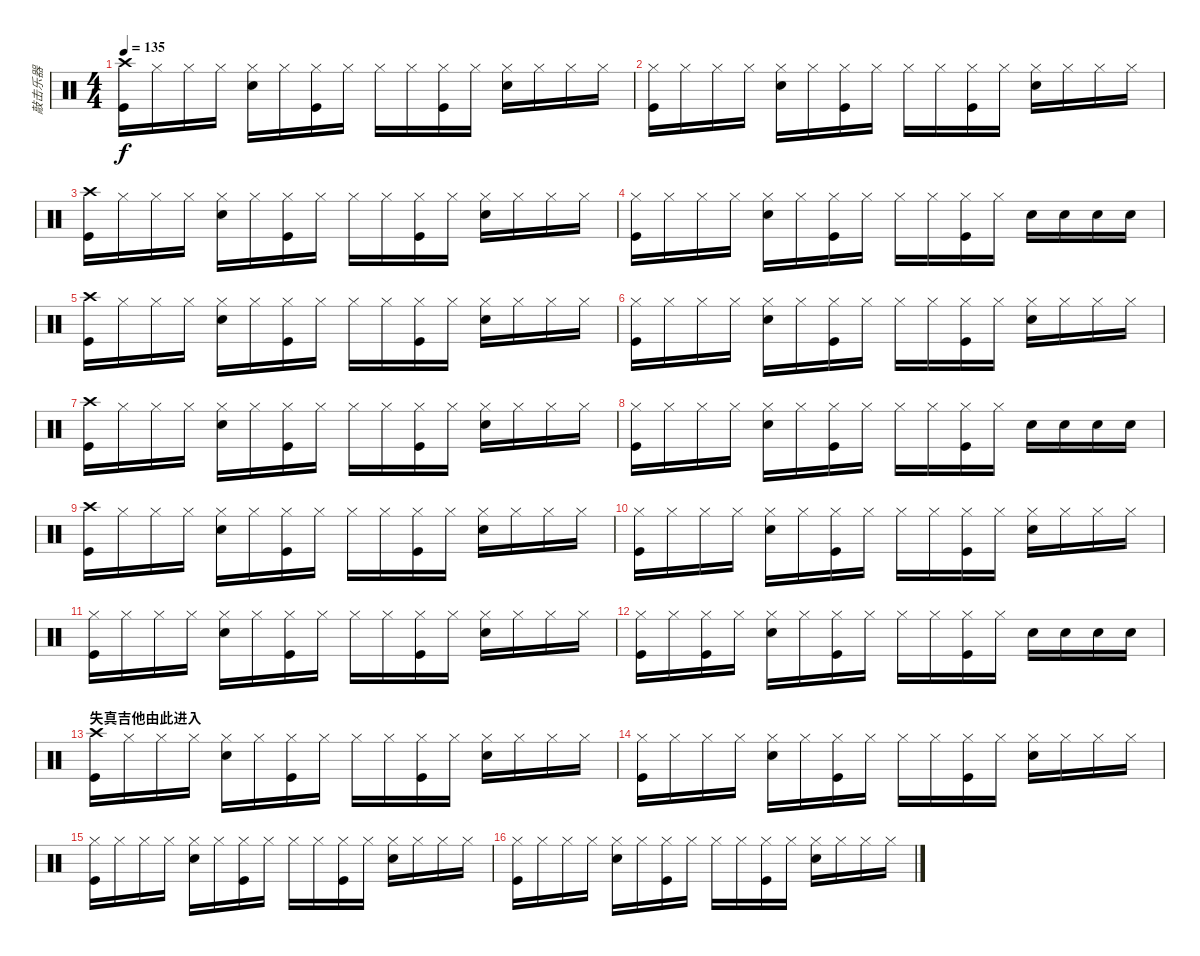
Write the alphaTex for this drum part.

\track ("敲击乐器" "敲击乐器") {instrument percussion}
\staff {score}
\articulation defaults
\ts (4 4)
\tempo 135
\clef neutral
\ks c
("Crash high (hit)" "Kick (hit)").16{dy f} "Hi-Hat (closed)".16 "Hi-Hat (closed)".16 "Hi-Hat (closed)".16 ("Hi-Hat (closed)" "Snare (hit) 2").16 "Hi-Hat (closed)".16 ("Hi-Hat (closed)" "Kick (hit)").16 "Hi-Hat (closed)".16 "Hi-Hat (closed)".16 "Hi-Hat (closed)".16 ("Hi-Hat (closed)" "Kick (hit)").16 "Hi-Hat (closed)".16 ("Hi-Hat (closed)" "Snare (hit) 2").16 "Hi-Hat (closed)".16 "Hi-Hat (closed)".16 "Hi-Hat (closed)".16 |
("Hi-Hat (closed)" "Kick (hit)").16 "Hi-Hat (closed)".16 "Hi-Hat (closed)".16 "Hi-Hat (closed)".16 ("Hi-Hat (closed)" "Snare (hit) 2").16 "Hi-Hat (closed)".16 ("Hi-Hat (closed)" "Kick (hit)").16 "Hi-Hat (closed)".16 "Hi-Hat (closed)".16 "Hi-Hat (closed)".16 ("Hi-Hat (closed)" "Kick (hit)").16 "Hi-Hat (closed)".16 ("Hi-Hat (closed)" "Snare (hit) 2").16 "Hi-Hat (closed)".16 "Hi-Hat (closed)".16 "Hi-Hat (closed)".16 |
("Crash high (hit)" "Kick (hit)").16 "Hi-Hat (closed)".16 "Hi-Hat (closed)".16 "Hi-Hat (closed)".16 ("Hi-Hat (closed)" "Snare (hit) 2").16 "Hi-Hat (closed)".16 ("Hi-Hat (closed)" "Kick (hit)").16 "Hi-Hat (closed)".16 "Hi-Hat (closed)".16 "Hi-Hat (closed)".16 ("Hi-Hat (closed)" "Kick (hit)").16 "Hi-Hat (closed)".16 ("Hi-Hat (closed)" "Snare (hit) 2").16 "Hi-Hat (closed)".16 "Hi-Hat (closed)".16 "Hi-Hat (closed)".16 |
("Hi-Hat (closed)" "Kick (hit)").16 "Hi-Hat (closed)".16 "Hi-Hat (closed)".16 "Hi-Hat (closed)".16 ("Hi-Hat (closed)" "Snare (hit) 2").16 "Hi-Hat (closed)".16 ("Hi-Hat (closed)" "Kick (hit)").16 "Hi-Hat (closed)".16 "Hi-Hat (closed)".16 "Hi-Hat (closed)".16 ("Hi-Hat (closed)" "Kick (hit)").16 "Hi-Hat (closed)".16 "Snare (hit) 2".16 "Snare (hit) 2".16 "Snare (hit) 2".16 "Snare (hit) 2".16 |
("Crash high (hit)" "Kick (hit)").16 "Hi-Hat (closed)".16 "Hi-Hat (closed)".16 "Hi-Hat (closed)".16 ("Hi-Hat (closed)" "Snare (hit) 2").16 "Hi-Hat (closed)".16 ("Hi-Hat (closed)" "Kick (hit)").16 "Hi-Hat (closed)".16 "Hi-Hat (closed)".16 "Hi-Hat (closed)".16 ("Hi-Hat (closed)" "Kick (hit)").16 "Hi-Hat (closed)".16 ("Hi-Hat (closed)" "Snare (hit) 2").16 "Hi-Hat (closed)".16 "Hi-Hat (closed)".16 "Hi-Hat (closed)".16 |
("Hi-Hat (closed)" "Kick (hit)").16 "Hi-Hat (closed)".16 "Hi-Hat (closed)".16 "Hi-Hat (closed)".16 ("Hi-Hat (closed)" "Snare (hit) 2").16 "Hi-Hat (closed)".16 ("Hi-Hat (closed)" "Kick (hit)").16 "Hi-Hat (closed)".16 "Hi-Hat (closed)".16 "Hi-Hat (closed)".16 ("Hi-Hat (closed)" "Kick (hit)").16 "Hi-Hat (closed)".16 ("Hi-Hat (closed)" "Snare (hit) 2").16 "Hi-Hat (closed)".16 "Hi-Hat (closed)".16 "Hi-Hat (closed)".16 |
("Crash high (hit)" "Kick (hit)").16 "Hi-Hat (closed)".16 "Hi-Hat (closed)".16 "Hi-Hat (closed)".16 ("Hi-Hat (closed)" "Snare (hit) 2").16 "Hi-Hat (closed)".16 ("Hi-Hat (closed)" "Kick (hit)").16 "Hi-Hat (closed)".16 "Hi-Hat (closed)".16 "Hi-Hat (closed)".16 ("Hi-Hat (closed)" "Kick (hit)").16 "Hi-Hat (closed)".16 ("Hi-Hat (closed)" "Snare (hit) 2").16 "Hi-Hat (closed)".16 "Hi-Hat (closed)".16 "Hi-Hat (closed)".16 |
("Hi-Hat (closed)" "Kick (hit)").16 "Hi-Hat (closed)".16 "Hi-Hat (closed)".16 "Hi-Hat (closed)".16 ("Hi-Hat (closed)" "Snare (hit) 2").16 "Hi-Hat (closed)".16 ("Hi-Hat (closed)" "Kick (hit)").16 "Hi-Hat (closed)".16 "Hi-Hat (closed)".16 "Hi-Hat (closed)".16 ("Hi-Hat (closed)" "Kick (hit)").16 "Hi-Hat (closed)".16 "Snare (hit) 2".16 "Snare (hit) 2".16 "Snare (hit) 2".16 "Snare (hit) 2".16 |
("Crash high (hit)" "Kick (hit)").16 "Hi-Hat (closed)".16 "Hi-Hat (closed)".16 "Hi-Hat (closed)".16 ("Hi-Hat (closed)" "Snare (hit) 2").16 "Hi-Hat (closed)".16 ("Hi-Hat (closed)" "Kick (hit)").16 "Hi-Hat (closed)".16 "Hi-Hat (closed)".16 "Hi-Hat (closed)".16 ("Hi-Hat (closed)" "Kick (hit)").16 "Hi-Hat (closed)".16 ("Hi-Hat (closed)" "Snare (hit) 2").16 "Hi-Hat (closed)".16 "Hi-Hat (closed)".16 "Hi-Hat (closed)".16 |
("Hi-Hat (closed)" "Kick (hit)").16 "Hi-Hat (closed)".16 "Hi-Hat (closed)".16 "Hi-Hat (closed)".16 ("Hi-Hat (closed)" "Snare (hit) 2").16 "Hi-Hat (closed)".16 ("Hi-Hat (closed)" "Kick (hit)").16 "Hi-Hat (closed)".16 "Hi-Hat (closed)".16 "Hi-Hat (closed)".16 ("Hi-Hat (closed)" "Kick (hit)").16 "Hi-Hat (closed)".16 ("Hi-Hat (closed)" "Snare (hit) 2").16 "Hi-Hat (closed)".16 "Hi-Hat (closed)".16 "Hi-Hat (closed)".16 |
("Hi-Hat (closed)" "Kick (hit)").16 "Hi-Hat (closed)".16 "Hi-Hat (closed)".16 "Hi-Hat (closed)".16 ("Hi-Hat (closed)" "Snare (hit) 2").16 "Hi-Hat (closed)".16 ("Hi-Hat (closed)" "Kick (hit)").16 "Hi-Hat (closed)".16 "Hi-Hat (closed)".16 "Hi-Hat (closed)".16 ("Hi-Hat (closed)" "Kick (hit)").16 "Hi-Hat (closed)".16 ("Hi-Hat (closed)" "Snare (hit) 2").16 "Hi-Hat (closed)".16 "Hi-Hat (closed)".16 "Hi-Hat (closed)".16 |
("Hi-Hat (closed)" "Kick (hit)").16 "Hi-Hat (closed)".16 ("Hi-Hat (closed)" "Kick (hit)").16 "Hi-Hat (closed)".16 ("Hi-Hat (closed)" "Snare (hit) 2").16 "Hi-Hat (closed)".16 ("Hi-Hat (closed)" "Kick (hit)").16 "Hi-Hat (closed)".16 "Hi-Hat (closed)".16 "Hi-Hat (closed)".16 ("Hi-Hat (closed)" "Kick (hit)").16 "Hi-Hat (closed)".16 "Snare (hit) 2".16 "Snare (hit) 2".16 "Snare (hit) 2".16 "Snare (hit) 2".16 |
\section ("" "失真吉他由此进入")
("Crash high (hit)" "Kick (hit)").16 "Hi-Hat (closed)".16 "Hi-Hat (closed)".16 "Hi-Hat (closed)".16 ("Hi-Hat (closed)" "Snare (hit) 2").16 "Hi-Hat (closed)".16 ("Hi-Hat (closed)" "Kick (hit)").16 "Hi-Hat (closed)".16 "Hi-Hat (closed)".16 "Hi-Hat (closed)".16 ("Hi-Hat (closed)" "Kick (hit)").16 "Hi-Hat (closed)".16 ("Hi-Hat (closed)" "Snare (hit) 2").16 "Hi-Hat (closed)".16 "Hi-Hat (closed)".16 "Hi-Hat (closed)".16 |
("Hi-Hat (closed)" "Kick (hit)").16 "Hi-Hat (closed)".16 "Hi-Hat (closed)".16 "Hi-Hat (closed)".16 ("Hi-Hat (closed)" "Snare (hit) 2").16 "Hi-Hat (closed)".16 ("Hi-Hat (closed)" "Kick (hit)").16 "Hi-Hat (closed)".16 "Hi-Hat (closed)".16 "Hi-Hat (closed)".16 ("Hi-Hat (closed)" "Kick (hit)").16 "Hi-Hat (closed)".16 ("Hi-Hat (closed)" "Snare (hit) 2").16 "Hi-Hat (closed)".16 "Hi-Hat (closed)".16 "Hi-Hat (closed)".16 |
("Hi-Hat (closed)" "Kick (hit)").16 "Hi-Hat (closed)".16 "Hi-Hat (closed)".16 "Hi-Hat (closed)".16 ("Hi-Hat (closed)" "Snare (hit) 2").16 "Hi-Hat (closed)".16 ("Hi-Hat (closed)" "Kick (hit)").16 "Hi-Hat (closed)".16 "Hi-Hat (closed)".16 "Hi-Hat (closed)".16 ("Hi-Hat (closed)" "Kick (hit)").16 "Hi-Hat (closed)".16 ("Hi-Hat (closed)" "Snare (hit) 2").16 "Hi-Hat (closed)".16 "Hi-Hat (closed)".16 "Hi-Hat (closed)".16 |
("Hi-Hat (closed)" "Kick (hit)").16 "Hi-Hat (closed)".16 "Hi-Hat (closed)".16 "Hi-Hat (closed)".16 ("Hi-Hat (closed)" "Snare (hit) 2").16 "Hi-Hat (closed)".16 ("Hi-Hat (closed)" "Kick (hit)").16 "Hi-Hat (closed)".16 "Hi-Hat (closed)".16 "Hi-Hat (closed)".16 ("Hi-Hat (closed)" "Kick (hit)").16 "Hi-Hat (closed)".16 ("Hi-Hat (closed)" "Snare (hit) 2").16 "Hi-Hat (closed)".16 "Hi-Hat (closed)".16 "Hi-Hat (closed)".16
